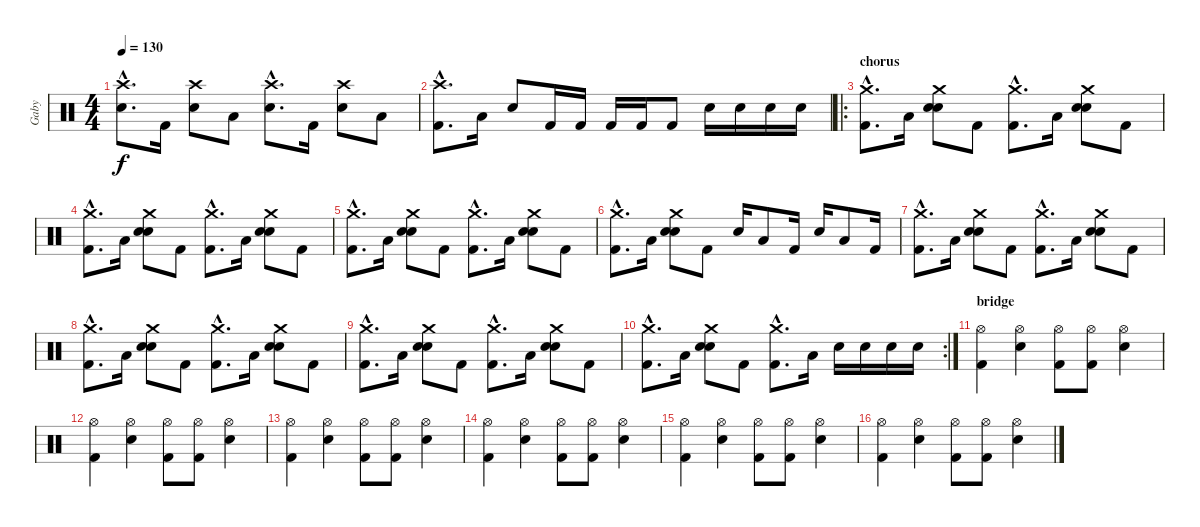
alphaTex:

\track ("Gaby" "Gaby") {instrument percussion}
\staff {score}
\articulation defaults
\ts (4 4)
\tempo 130
\clef neutral
\ks c
("Crash high (hit)"{hac} "Electric Snare (hit)"{hac}).8{d dy f} "Kick (hit) 2".16 ("Crash high (hit)" "Electric Snare (hit)").8 "Low Floor Tom (hit)".8 ("Crash high (hit)"{hac} "Electric Snare (hit)"{hac}).8{d} "Kick (hit) 2".16 ("Crash high (hit)" "Electric Snare (hit)").8 "Low Floor Tom (hit)".8 |
("Crash high (hit)"{hac} "Kick (hit) 2"{hac}).8{d} "Low Floor Tom (hit)".16 "Electric Snare (hit)".8 "Kick (hit) 2".16 "Kick (hit) 2".16 "Kick (hit) 2".16 "Kick (hit) 2".16 "Kick (hit) 2".8 "Electric Snare (hit)".16 "Electric Snare (hit)".16 "Electric Snare (hit)".16 "Electric Snare (hit)".16 |
\ro
\section ("" "chorus")
("Crash medium (hit)"{hac} "Kick (hit) 2"{hac}).8{d} "Low Floor Tom (hit)".16 ("Crash medium (hit)" "Electric Snare (hit)" "Electric Snare (hit)").8 "Kick (hit) 2".8 ("Crash medium (hit)"{hac} "Kick (hit) 2"{hac}).8{d} "Low Floor Tom (hit)".16 ("Crash medium (hit)" "Electric Snare (hit)" "Electric Snare (hit)").8 "Kick (hit) 2".8 |
("Crash medium (hit)"{hac} "Kick (hit) 2"{hac}).8{d} "Low Floor Tom (hit)".16 ("Crash medium (hit)" "Electric Snare (hit)" "Electric Snare (hit)").8 "Kick (hit) 2".8 ("Crash medium (hit)"{hac} "Kick (hit) 2"{hac}).8{d} "Low Floor Tom (hit)".16 ("Crash medium (hit)" "Electric Snare (hit)" "Electric Snare (hit)").8 "Kick (hit) 2".8 |
("Crash medium (hit)"{hac} "Kick (hit) 2"{hac}).8{d} "Low Floor Tom (hit)".16 ("Crash medium (hit)" "Electric Snare (hit)" "Electric Snare (hit)").8 "Kick (hit) 2".8 ("Crash medium (hit)"{hac} "Kick (hit) 2"{hac}).8{d} "Low Floor Tom (hit)".16 ("Crash medium (hit)" "Electric Snare (hit)" "Electric Snare (hit)").8 "Kick (hit) 2".8 |
("Crash medium (hit)"{hac} "Kick (hit) 2"{hac}).8{d} "Low Floor Tom (hit)".16 ("Crash medium (hit)" "Electric Snare (hit)" "Electric Snare (hit)").8 "Kick (hit) 2".8 "Electric Snare (hit)".16 "Low Floor Tom (hit)".8 "Kick (hit) 2".16 "Electric Snare (hit)".16 "Low Floor Tom (hit)".8 "Kick (hit) 2".16 |
("Crash medium (hit)"{hac} "Kick (hit) 2"{hac}).8{d} "Low Floor Tom (hit)".16 ("Crash medium (hit)" "Electric Snare (hit)" "Electric Snare (hit)").8 "Kick (hit) 2".8 ("Crash medium (hit)"{hac} "Kick (hit) 2"{hac}).8{d} "Low Floor Tom (hit)".16 ("Crash medium (hit)" "Electric Snare (hit)" "Electric Snare (hit)").8 "Kick (hit) 2".8 |
("Crash medium (hit)"{hac} "Kick (hit) 2"{hac}).8{d} "Low Floor Tom (hit)".16 ("Crash medium (hit)" "Electric Snare (hit)" "Electric Snare (hit)").8 "Kick (hit) 2".8 ("Crash medium (hit)"{hac} "Kick (hit) 2"{hac}).8{d} "Low Floor Tom (hit)".16 ("Crash medium (hit)" "Electric Snare (hit)" "Electric Snare (hit)").8 "Kick (hit) 2".8 |
("Crash medium (hit)"{hac} "Kick (hit) 2"{hac}).8{d} "Low Floor Tom (hit)".16 ("Crash medium (hit)" "Electric Snare (hit)" "Electric Snare (hit)").8 "Kick (hit) 2".8 ("Crash medium (hit)"{hac} "Kick (hit) 2"{hac}).8{d} "Low Floor Tom (hit)".16 ("Crash medium (hit)" "Electric Snare (hit)" "Electric Snare (hit)").8 "Kick (hit) 2".8 |
\rc 2
("Crash medium (hit)"{hac} "Kick (hit) 2"{hac}).8{d} "Low Floor Tom (hit)".16 ("Crash medium (hit)" "Electric Snare (hit)" "Electric Snare (hit)").8 "Kick (hit) 2".8 ("Crash medium (hit)"{hac} "Kick (hit) 2"{hac}).8{d} "Low Floor Tom (hit)".16 "Electric Snare (hit)".16 "Electric Snare (hit)".16 "Electric Snare (hit)".16 "Electric Snare (hit)".16 |
\section ("" "bridge")
("Hi-Hat (open)" "Kick (hit) 2").4 ("Hi-Hat (open)" "Electric Snare (hit)").4 ("Hi-Hat (open)" "Kick (hit) 2").8 ("Hi-Hat (open)" "Kick (hit) 2").8 ("Hi-Hat (open)" "Electric Snare (hit)").4 |
("Hi-Hat (open)" "Kick (hit) 2").4 ("Hi-Hat (open)" "Electric Snare (hit)").4 ("Hi-Hat (open)" "Kick (hit) 2").8 ("Hi-Hat (open)" "Kick (hit) 2").8 ("Hi-Hat (open)" "Electric Snare (hit)").4 |
("Hi-Hat (open)" "Kick (hit) 2").4 ("Hi-Hat (open)" "Electric Snare (hit)").4 ("Hi-Hat (open)" "Kick (hit) 2").8 ("Hi-Hat (open)" "Kick (hit) 2").8 ("Hi-Hat (open)" "Electric Snare (hit)").4 |
("Hi-Hat (open)" "Kick (hit) 2").4 ("Hi-Hat (open)" "Electric Snare (hit)").4 ("Hi-Hat (open)" "Kick (hit) 2").8 ("Hi-Hat (open)" "Kick (hit) 2").8 ("Hi-Hat (open)" "Electric Snare (hit)").4 |
("Hi-Hat (open)" "Kick (hit) 2").4 ("Hi-Hat (open)" "Electric Snare (hit)").4 ("Hi-Hat (open)" "Kick (hit) 2").8 ("Hi-Hat (open)" "Kick (hit) 2").8 ("Hi-Hat (open)" "Electric Snare (hit)").4 |
("Hi-Hat (open)" "Kick (hit) 2").4 ("Hi-Hat (open)" "Electric Snare (hit)").4 ("Hi-Hat (open)" "Kick (hit) 2").8 ("Hi-Hat (open)" "Kick (hit) 2").8 ("Hi-Hat (open)" "Electric Snare (hit)").4
